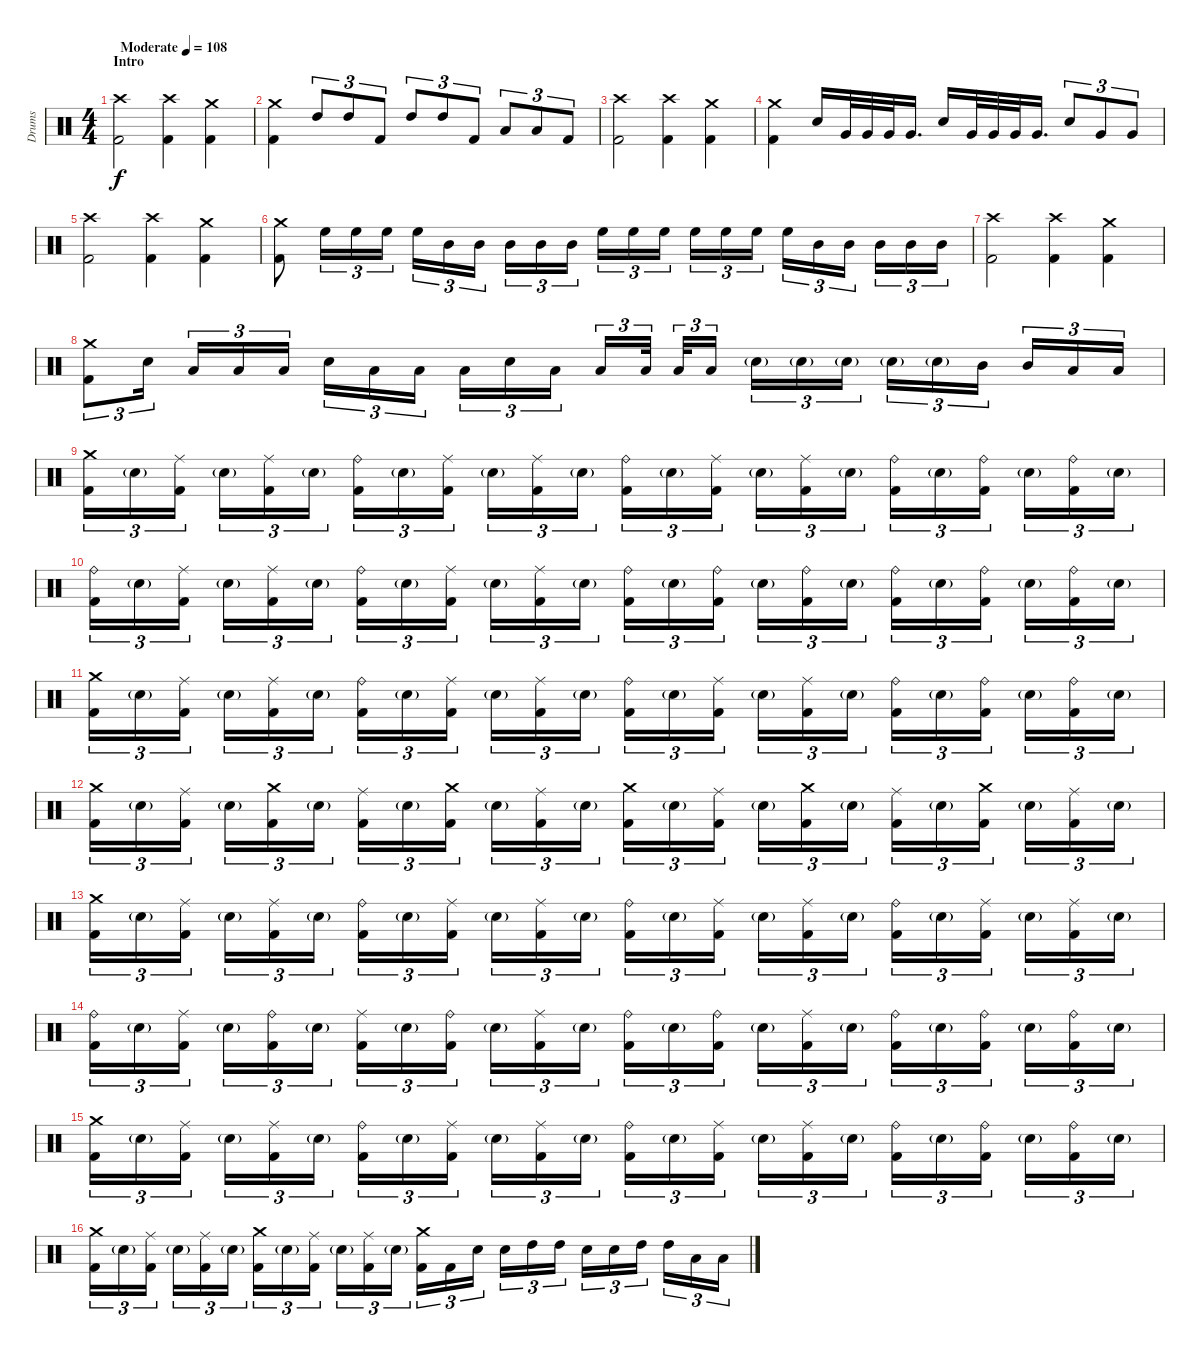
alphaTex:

\track ("Drums" "Drums") {instrument percussion}
\staff {score}
\articulation defaults
\ts (4 4)
\section ("" "Intro")
\tempo (108 "Moderate")
\clef neutral
\ks c
("Crash high (hit)" "Kick (hit) 2").2{dy f} ("Crash high (hit)" "Kick (hit) 2").4 ("Crash medium (hit)" "Kick (hit) 2").4 |
("Crash medium (hit)" "Kick (hit) 2").4 "High Tom (hit)".8{tu (3 2)} "High Tom (hit)".8{tu (3 2)} "Kick (hit) 2".8{tu (3 2)} "High Tom (hit)".8{tu (3 2)} "High Tom (hit)".8{tu (3 2)} "Kick (hit) 2".8{tu (3 2)} "Low Tom (hit)".8{tu (3 2)} "Low Tom (hit)".8{tu (3 2)} "Kick (hit) 2".8{tu (3 2)} |
("Crash high (hit)" "Kick (hit) 2").2 ("Crash high (hit)" "Kick (hit) 2").4 ("Crash medium (hit)" "Kick (hit) 2").4 |
("Crash medium (hit)" "Kick (hit) 2").4 "Snare (hit) 2".16 "Very Low Tom (hit)".32 "Very Low Tom (hit)".32 "Very Low Tom (hit)".32 "Very Low Tom (hit)".16{d} "Snare (hit) 2".16 "Very Low Tom (hit)".32 "Very Low Tom (hit)".32 "Very Low Tom (hit)".32 "Very Low Tom (hit)".16{d} "Snare (hit) 2".8{tu (3 2)} "Very Low Tom (hit)".8{tu (3 2)} "Very Low Tom (hit)".8{tu (3 2)} |
("Crash high (hit)" "Kick (hit) 2").2 ("Crash high (hit)" "Kick (hit) 2").4 ("Crash medium (hit)" "Kick (hit) 2").4 |
("Crash medium (hit)" "Kick (hit) 2").8 "High Floor Tom (hit)".16{tu (3 2)} "High Floor Tom (hit)".16{tu (3 2)} "High Floor Tom (hit)".16{tu (3 2)} "High Floor Tom (hit)".16{tu (3 2)} "Mid Tom (hit)".16{tu (3 2)} "Mid Tom (hit)".16{tu (3 2)} "Mid Tom (hit)".16{tu (3 2)} "Mid Tom (hit)".16{tu (3 2)} "Mid Tom (hit)".16{tu (3 2)} "High Floor Tom (hit)".16{tu (3 2)} "High Floor Tom (hit)".16{tu (3 2)} "High Floor Tom (hit)".16{tu (3 2)} "High Floor Tom (hit)".16{tu (3 2)} "High Floor Tom (hit)".16{tu (3 2)} "High Floor Tom (hit)".16{tu (3 2)} "High Floor Tom (hit)".16{tu (3 2)} "Mid Tom (hit)".16{tu (3 2)} "Mid Tom (hit)".16{tu (3 2)} "Mid Tom (hit)".16{tu (3 2)} "Mid Tom (hit)".16{tu (3 2)} "Mid Tom (hit)".16{tu (3 2)} |
("Crash high (hit)" "Kick (hit) 2").2 ("Crash high (hit)" "Kick (hit) 2").4 ("Crash medium (hit)" "Kick (hit) 2").4 |
("Crash medium (hit)" "Kick (hit) 2").8{tu (3 2)} "Snare (hit) 2".16{tu (3 2)} "Low Tom (hit)".16{tu (3 2)} "Low Tom (hit)".16{tu (3 2)} "Low Tom (hit)".16{tu (3 2)} "Snare (hit) 2".16{tu (3 2)} "Low Tom (hit)".16{tu (3 2)} "Low Tom (hit)".16{tu (3 2)} "Low Tom (hit)".16{tu (3 2)} "Snare (hit) 2".16{tu (3 2)} "Low Tom (hit)".16{tu (3 2)} "Low Tom (hit)".16{tu (3 2)} "Low Tom (hit)".32{tu (3 2)} "Low Tom (hit)".32{tu (3 2)} "Low Tom (hit)".16{tu (3 2)} "Snare (hit) 2"{g}.16{tu (3 2)} "Snare (hit) 2"{g}.16{tu (3 2)} "Snare (hit) 2"{g}.16{tu (3 2)} "Snare (hit) 2"{g}.16{tu (3 2)} "Snare (hit) 2"{g}.16{tu (3 2)} "Mid Tom (hit)".16{tu (3 2)} "Mid Tom (hit)".16{tu (3 2)} "Low Tom (hit)".16{tu (3 2)} "Low Tom (hit)".16{tu (3 2)} |
("Crash medium (hit)" "Kick (hit) 2").16{tu (3 2)} "Snare (hit) 2"{g}.16{tu (3 2)} ("Ride (middle)" "Kick (hit) 2").16{tu (3 2)} "Snare (hit) 2"{g}.16{tu (3 2)} ("Ride (middle)" "Kick (hit) 2").16{tu (3 2)} "Snare (hit) 2"{g}.16{tu (3 2)} ("Ride (bell)" "Kick (hit) 2").16{tu (3 2)} "Snare (hit) 2"{g}.16{tu (3 2)} ("Ride (middle)" "Kick (hit) 2").16{tu (3 2)} "Snare (hit) 2"{g}.16{tu (3 2)} ("Ride (middle)" "Kick (hit) 2").16{tu (3 2)} "Snare (hit) 2"{g}.16{tu (3 2)} ("Ride (bell)" "Kick (hit) 2").16{tu (3 2)} "Snare (hit) 2"{g}.16{tu (3 2)} ("Ride (middle)" "Kick (hit) 2").16{tu (3 2)} "Snare (hit) 2"{g}.16{tu (3 2)} ("Ride (middle)" "Kick (hit) 2").16{tu (3 2)} "Snare (hit) 2"{g}.16{tu (3 2)} ("Ride (bell)" "Kick (hit) 2").16{tu (3 2)} "Snare (hit) 2"{g}.16{tu (3 2)} ("Ride (bell)" "Kick (hit) 2").16{tu (3 2)} "Snare (hit) 2"{g}.16{tu (3 2)} ("Ride (bell)" "Kick (hit) 2").16{tu (3 2)} "Snare (hit) 2"{g}.16{tu (3 2)} |
("Ride (bell)" "Kick (hit) 2").16{tu (3 2)} "Snare (hit) 2"{g}.16{tu (3 2)} ("Ride (middle)" "Kick (hit) 2").16{tu (3 2)} "Snare (hit) 2"{g}.16{tu (3 2)} ("Ride (middle)" "Kick (hit) 2").16{tu (3 2)} "Snare (hit) 2"{g}.16{tu (3 2)} ("Ride (bell)" "Kick (hit) 2").16{tu (3 2)} "Snare (hit) 2"{g}.16{tu (3 2)} ("Ride (middle)" "Kick (hit) 2").16{tu (3 2)} "Snare (hit) 2"{g}.16{tu (3 2)} ("Ride (middle)" "Kick (hit) 2").16{tu (3 2)} "Snare (hit) 2"{g}.16{tu (3 2)} ("Ride (bell)" "Kick (hit) 2").16{tu (3 2)} "Snare (hit) 2"{g}.16{tu (3 2)} ("Ride (bell)" "Kick (hit) 2").16{tu (3 2)} "Snare (hit) 2"{g}.16{tu (3 2)} ("Ride (bell)" "Kick (hit) 2").16{tu (3 2)} "Snare (hit) 2"{g}.16{tu (3 2)} ("Ride (bell)" "Kick (hit) 2").16{tu (3 2)} "Snare (hit) 2"{g}.16{tu (3 2)} ("Ride (bell)" "Kick (hit) 2").16{tu (3 2)} "Snare (hit) 2"{g}.16{tu (3 2)} ("Ride (bell)" "Kick (hit) 2").16{tu (3 2)} "Snare (hit) 2"{g}.16{tu (3 2)} |
("Crash medium (hit)" "Kick (hit) 2").16{tu (3 2)} "Snare (hit) 2"{g}.16{tu (3 2)} ("Ride (middle)" "Kick (hit) 2").16{tu (3 2)} "Snare (hit) 2"{g}.16{tu (3 2)} ("Ride (middle)" "Kick (hit) 2").16{tu (3 2)} "Snare (hit) 2"{g}.16{tu (3 2)} ("Ride (bell)" "Kick (hit) 2").16{tu (3 2)} "Snare (hit) 2"{g}.16{tu (3 2)} ("Ride (middle)" "Kick (hit) 2").16{tu (3 2)} "Snare (hit) 2"{g}.16{tu (3 2)} ("Ride (middle)" "Kick (hit) 2").16{tu (3 2)} "Snare (hit) 2"{g}.16{tu (3 2)} ("Ride (bell)" "Kick (hit) 2").16{tu (3 2)} "Snare (hit) 2"{g}.16{tu (3 2)} ("Ride (middle)" "Kick (hit) 2").16{tu (3 2)} "Snare (hit) 2"{g}.16{tu (3 2)} ("Ride (middle)" "Kick (hit) 2").16{tu (3 2)} "Snare (hit) 2"{g}.16{tu (3 2)} ("Ride (bell)" "Kick (hit) 2").16{tu (3 2)} "Snare (hit) 2"{g}.16{tu (3 2)} ("Ride (bell)" "Kick (hit) 2").16{tu (3 2)} "Snare (hit) 2"{g}.16{tu (3 2)} ("Ride (bell)" "Kick (hit) 2").16{tu (3 2)} "Snare (hit) 2"{g}.16{tu (3 2)} |
("Crash medium (hit)" "Kick (hit) 2").16{tu (3 2)} "Snare (hit) 2"{g}.16{tu (3 2)} ("Ride (middle)" "Kick (hit) 2").16{tu (3 2)} "Snare (hit) 2"{g}.16{tu (3 2)} ("Crash medium (hit)" "Kick (hit) 2").16{tu (3 2)} "Snare (hit) 2"{g}.16{tu (3 2)} ("Ride (middle)" "Kick (hit) 2").16{tu (3 2)} "Snare (hit) 2"{g}.16{tu (3 2)} ("Crash medium (hit)" "Kick (hit) 2").16{tu (3 2)} "Snare (hit) 2"{g}.16{tu (3 2)} ("Ride (middle)" "Kick (hit) 2").16{tu (3 2)} "Snare (hit) 2"{g}.16{tu (3 2)} ("Crash medium (hit)" "Kick (hit) 2").16{tu (3 2)} "Snare (hit) 2"{g}.16{tu (3 2)} ("Ride (middle)" "Kick (hit) 2").16{tu (3 2)} "Snare (hit) 2"{g}.16{tu (3 2)} ("Crash medium (hit)" "Kick (hit) 2").16{tu (3 2)} "Snare (hit) 2"{g}.16{tu (3 2)} ("Ride (middle)" "Kick (hit) 2").16{tu (3 2)} "Snare (hit) 2"{g}.16{tu (3 2)} ("Crash medium (hit)" "Kick (hit) 2").16{tu (3 2)} "Snare (hit) 2"{g}.16{tu (3 2)} ("Ride (middle)" "Kick (hit) 2").16{tu (3 2)} "Snare (hit) 2"{g}.16{tu (3 2)} |
("Crash medium (hit)" "Kick (hit) 2").16{tu (3 2)} "Snare (hit) 2"{g}.16{tu (3 2)} ("Ride (middle)" "Kick (hit) 2").16{tu (3 2)} "Snare (hit) 2"{g}.16{tu (3 2)} ("Ride (middle)" "Kick (hit) 2").16{tu (3 2)} "Snare (hit) 2"{g}.16{tu (3 2)} ("Ride (bell)" "Kick (hit) 2").16{tu (3 2)} "Snare (hit) 2"{g}.16{tu (3 2)} ("Ride (middle)" "Kick (hit) 2").16{tu (3 2)} "Snare (hit) 2"{g}.16{tu (3 2)} ("Ride (middle)" "Kick (hit) 2").16{tu (3 2)} "Snare (hit) 2"{g}.16{tu (3 2)} ("Ride (bell)" "Kick (hit) 2").16{tu (3 2)} "Snare (hit) 2"{g}.16{tu (3 2)} ("Ride (middle)" "Kick (hit) 2").16{tu (3 2)} "Snare (hit) 2"{g}.16{tu (3 2)} ("Ride (middle)" "Kick (hit) 2").16{tu (3 2)} "Snare (hit) 2"{g}.16{tu (3 2)} ("Ride (bell)" "Kick (hit) 2").16{tu (3 2)} "Snare (hit) 2"{g}.16{tu (3 2)} ("Ride (middle)" "Kick (hit) 2").16{tu (3 2)} "Snare (hit) 2"{g}.16{tu (3 2)} ("Ride (middle)" "Kick (hit) 2").16{tu (3 2)} "Snare (hit) 2"{g}.16{tu (3 2)} |
("Ride (bell)" "Kick (hit) 2").16{tu (3 2)} "Snare (hit) 2"{g}.16{tu (3 2)} ("Ride (middle)" "Kick (hit) 2").16{tu (3 2)} "Snare (hit) 2"{g}.16{tu (3 2)} ("Ride (bell)" "Kick (hit) 2").16{tu (3 2)} "Snare (hit) 2"{g}.16{tu (3 2)} ("Ride (middle)" "Kick (hit) 2").16{tu (3 2)} "Snare (hit) 2"{g}.16{tu (3 2)} ("Ride (bell)" "Kick (hit) 2").16{tu (3 2)} "Snare (hit) 2"{g}.16{tu (3 2)} ("Ride (middle)" "Kick (hit) 2").16{tu (3 2)} "Snare (hit) 2"{g}.16{tu (3 2)} ("Ride (bell)" "Kick (hit) 2").16{tu (3 2)} "Snare (hit) 2"{g}.16{tu (3 2)} ("Ride (bell)" "Kick (hit) 2").16{tu (3 2)} "Snare (hit) 2"{g}.16{tu (3 2)} ("Ride (middle)" "Kick (hit) 2").16{tu (3 2)} "Snare (hit) 2"{g}.16{tu (3 2)} ("Ride (bell)" "Kick (hit) 2").16{tu (3 2)} "Snare (hit) 2"{g}.16{tu (3 2)} ("Ride (bell)" "Kick (hit) 2").16{tu (3 2)} "Snare (hit) 2"{g}.16{tu (3 2)} ("Ride (bell)" "Kick (hit) 2").16{tu (3 2)} "Snare (hit) 2"{g}.16{tu (3 2)} |
("Crash medium (hit)" "Kick (hit) 2").16{tu (3 2)} "Snare (hit) 2"{g}.16{tu (3 2)} ("Ride (middle)" "Kick (hit) 2").16{tu (3 2)} "Snare (hit) 2"{g}.16{tu (3 2)} ("Ride (middle)" "Kick (hit) 2").16{tu (3 2)} "Snare (hit) 2"{g}.16{tu (3 2)} ("Ride (bell)" "Kick (hit) 2").16{tu (3 2)} "Snare (hit) 2"{g}.16{tu (3 2)} ("Ride (middle)" "Kick (hit) 2").16{tu (3 2)} "Snare (hit) 2"{g}.16{tu (3 2)} ("Ride (middle)" "Kick (hit) 2").16{tu (3 2)} "Snare (hit) 2"{g}.16{tu (3 2)} ("Ride (bell)" "Kick (hit) 2").16{tu (3 2)} "Snare (hit) 2"{g}.16{tu (3 2)} ("Ride (middle)" "Kick (hit) 2").16{tu (3 2)} "Snare (hit) 2"{g}.16{tu (3 2)} ("Ride (middle)" "Kick (hit) 2").16{tu (3 2)} "Snare (hit) 2"{g}.16{tu (3 2)} ("Ride (bell)" "Kick (hit) 2").16{tu (3 2)} "Snare (hit) 2"{g}.16{tu (3 2)} ("Ride (bell)" "Kick (hit) 2").16{tu (3 2)} "Snare (hit) 2"{g}.16{tu (3 2)} ("Ride (bell)" "Kick (hit) 2").16{tu (3 2)} "Snare (hit) 2"{g}.16{tu (3 2)} |
("Crash medium (hit)" "Kick (hit) 2").16{tu (3 2)} "Snare (hit) 2"{g}.16{tu (3 2)} ("Ride (middle)" "Kick (hit) 2").16{tu (3 2)} "Snare (hit) 2"{g}.16{tu (3 2)} ("Ride (middle)" "Kick (hit) 2").16{tu (3 2)} "Snare (hit) 2"{g}.16{tu (3 2)} ("Crash medium (hit)" "Kick (hit) 2").16{tu (3 2)} "Snare (hit) 2"{g}.16{tu (3 2)} ("Ride (middle)" "Kick (hit) 2").16{tu (3 2)} "Snare (hit) 2"{g}.16{tu (3 2)} ("Ride (middle)" "Kick (hit) 2").16{tu (3 2)} "Snare (hit) 2"{g}.16{tu (3 2)} ("Crash medium (hit)" "Kick (hit) 2").16{tu (3 2)} "Kick (hit) 2".16{tu (3 2)} "Snare (hit) 2".16{tu (3 2)} "Snare (hit) 2".16{tu (3 2)} "High Tom (hit)".16{tu (3 2)} "High Tom (hit)".16{tu (3 2)} "Snare (hit) 2".16{tu (3 2)} "Snare (hit) 2".16{tu (3 2)} "High Tom (hit)".16{tu (3 2)} "High Tom (hit)".16{tu (3 2)} "Low Tom (hit)".16{tu (3 2)} "Low Tom (hit)".16{tu (3 2)}
